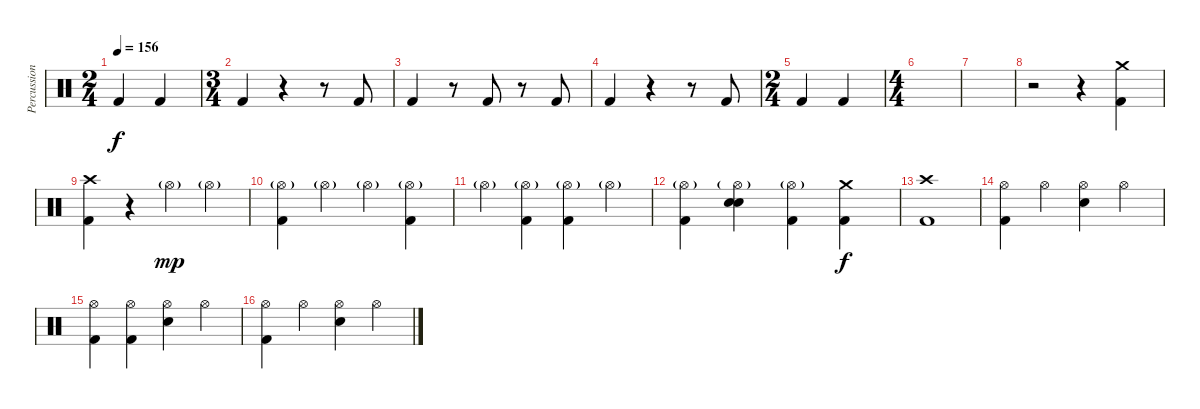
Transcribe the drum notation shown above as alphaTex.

\track ("Percussions" "Percussion") {instrument percussion}
\staff {score}
\articulation defaults
\ts (2 4)
\tempo 156
\clef neutral
\ks c "Kick (hit) 2".4{dy f} "Kick (hit) 2".4
|
\ts (3 4)
"Kick (hit) 2".4 r.4 r.8 "Kick (hit) 2".8 |
"Kick (hit) 2".4 r.8 "Kick (hit) 2".8 r.8 "Kick (hit) 2".8 |
"Kick (hit) 2".4 r.4 r.8 "Kick (hit) 2".8 |
\ts (2 4)
"Kick (hit) 2".4 "Kick (hit) 2".4 |
\ts (4 4)
|
|
r.2 r.4 ("Crash medium (hit)" "Kick (hit) 2").4 |
("Crash high (hit)" "Kick (hit) 2").4 r.4 "Hi-Hat (open)"{g}.4{dy mp} "Hi-Hat (open)"{g}.4 |
("Hi-Hat (open)"{g} "Kick (hit) 2").4 "Hi-Hat (open)"{g}.4 "Hi-Hat (open)"{g}.4 ("Hi-Hat (open)"{g} "Kick (hit) 2").4 |
"Hi-Hat (open)"{g}.4 ("Hi-Hat (open)"{g} "Kick (hit) 2").4 ("Hi-Hat (open)"{g} "Kick (hit) 2").4 "Hi-Hat (open)"{g}.4 |
("Hi-Hat (open)"{g} "Kick (hit) 2").4 ("Hi-Hat (open)"{g} "Snare (hit) 2" "Electric Snare (hit)").4 ("Hi-Hat (open)"{g} "Kick (hit) 2").4 ("Crash medium (hit)" "Kick (hit) 2").4{dy f} |
("Crash high (hit)" "Kick (hit) 2").1 |
("Hi-Hat (open)" "Kick (hit) 2").4 "Hi-Hat (open)".4 ("Hi-Hat (open)" "Electric Snare (hit)").4 "Hi-Hat (open)".4 |
("Hi-Hat (open)" "Kick (hit) 2").4 ("Hi-Hat (open)" "Kick (hit) 2").4 ("Hi-Hat (open)" "Electric Snare (hit)").4 "Hi-Hat (open)".4 |
("Hi-Hat (open)" "Kick (hit) 2").4 "Hi-Hat (open)".4 ("Hi-Hat (open)" "Electric Snare (hit)").4 "Hi-Hat (open)".4
